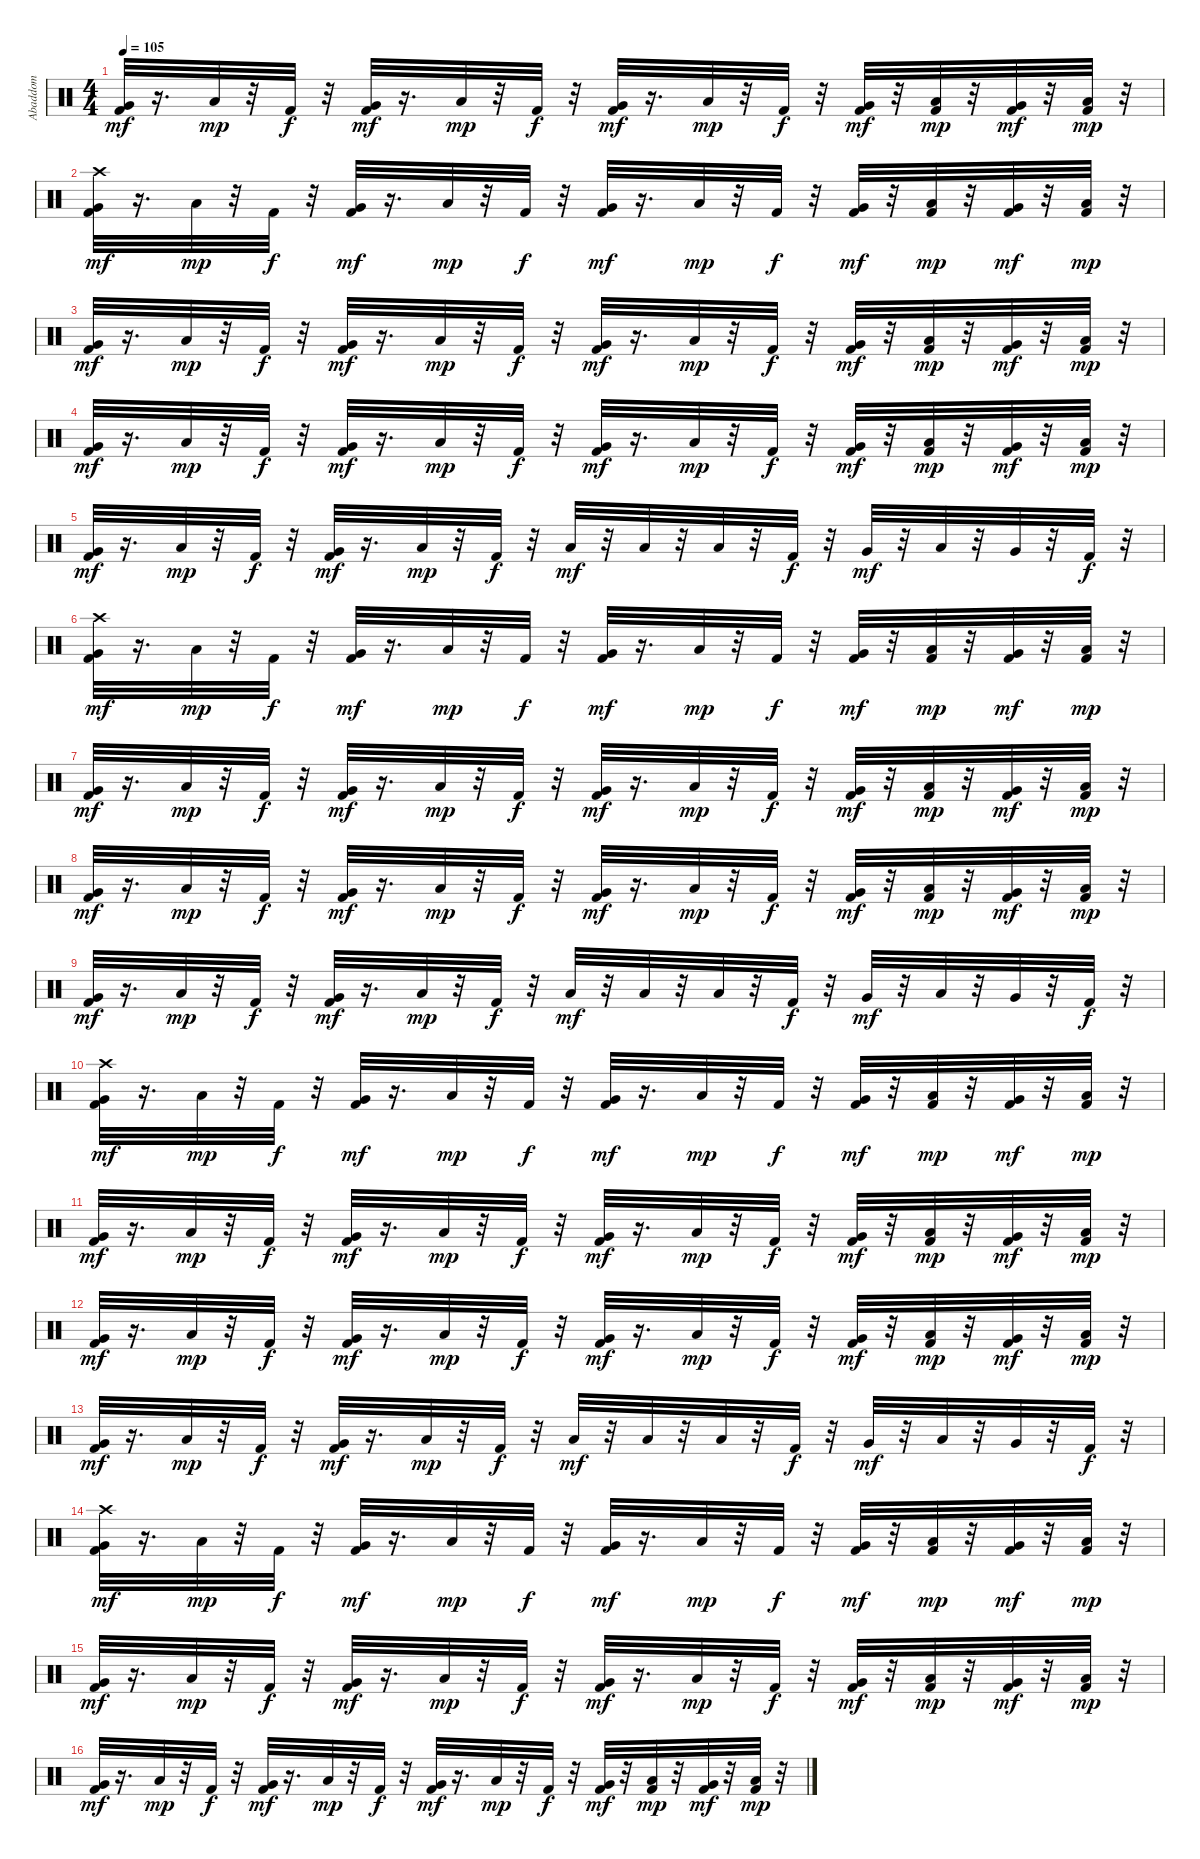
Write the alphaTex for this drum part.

\track ("Abaddom" "Abaddom") {instrument percussion}
\staff {score}
\articulation defaults
\ts (4 4)
\tempo 105
\clef neutral
\ks c
("Very Low Tom (hit)" "Kick (hit) 2").32{dy mf} r.16{d} "Low Floor Tom (hit)".32{dy mp} r.32 "Kick (hit) 2".32{dy f} r.32 ("Kick (hit) 2" "Very Low Tom (hit)").32{dy mf} r.16{d} "Low Floor Tom (hit)".32{dy mp} r.32 "Kick (hit) 2".32{dy f} r.32 ("Kick (hit) 2" "Very Low Tom (hit)").32{dy mf} r.16{d} "Low Floor Tom (hit)".32{dy mp} r.32 "Kick (hit) 2".32{dy f} r.32 ("Kick (hit) 2" "Very Low Tom (hit)").32{dy mf} r.32 ("Low Floor Tom (hit)" "Kick (hit) 2").32{dy mp} r.32 ("Kick (hit) 2" "Very Low Tom (hit)").32{dy mf} r.32 ("Kick (hit) 2" "Low Floor Tom (hit)").32{dy mp} r.32 |
("Crash high (hit)" "Very Low Tom (hit)" "Kick (hit) 2").32{dy mf} r.16{d} "Low Floor Tom (hit)".32{dy mp} r.32 "Kick (hit) 2".32{dy f} r.32 ("Kick (hit) 2" "Very Low Tom (hit)").32{dy mf} r.16{d} "Low Floor Tom (hit)".32{dy mp} r.32 "Kick (hit) 2".32{dy f} r.32 ("Kick (hit) 2" "Very Low Tom (hit)").32{dy mf} r.16{d} "Low Floor Tom (hit)".32{dy mp} r.32 "Kick (hit) 2".32{dy f} r.32 ("Kick (hit) 2" "Very Low Tom (hit)").32{dy mf} r.32 ("Low Floor Tom (hit)" "Kick (hit) 2").32{dy mp} r.32 ("Kick (hit) 2" "Very Low Tom (hit)").32{dy mf} r.32 ("Kick (hit) 2" "Low Floor Tom (hit)").32{dy mp} r.32 |
("Very Low Tom (hit)" "Kick (hit) 2").32{dy mf} r.16{d} "Low Floor Tom (hit)".32{dy mp} r.32 "Kick (hit) 2".32{dy f} r.32 ("Kick (hit) 2" "Very Low Tom (hit)").32{dy mf} r.16{d} "Low Floor Tom (hit)".32{dy mp} r.32 "Kick (hit) 2".32{dy f} r.32 ("Kick (hit) 2" "Very Low Tom (hit)").32{dy mf} r.16{d} "Low Floor Tom (hit)".32{dy mp} r.32 "Kick (hit) 2".32{dy f} r.32 ("Kick (hit) 2" "Very Low Tom (hit)").32{dy mf} r.32 ("Low Floor Tom (hit)" "Kick (hit) 2").32{dy mp} r.32 ("Kick (hit) 2" "Very Low Tom (hit)").32{dy mf} r.32 ("Kick (hit) 2" "Low Floor Tom (hit)").32{dy mp} r.32 |
("Very Low Tom (hit)" "Kick (hit) 2").32{dy mf} r.16{d} "Low Floor Tom (hit)".32{dy mp} r.32 "Kick (hit) 2".32{dy f} r.32 ("Kick (hit) 2" "Very Low Tom (hit)").32{dy mf} r.16{d} "Low Floor Tom (hit)".32{dy mp} r.32 "Kick (hit) 2".32{dy f} r.32 ("Kick (hit) 2" "Very Low Tom (hit)").32{dy mf} r.16{d} "Low Floor Tom (hit)".32{dy mp} r.32 "Kick (hit) 2".32{dy f} r.32 ("Kick (hit) 2" "Very Low Tom (hit)").32{dy mf} r.32 ("Low Floor Tom (hit)" "Kick (hit) 2").32{dy mp} r.32 ("Kick (hit) 2" "Very Low Tom (hit)").32{dy mf} r.32 ("Kick (hit) 2" "Low Floor Tom (hit)").32{dy mp} r.32 |
("Very Low Tom (hit)" "Kick (hit) 2").32{dy mf} r.16{d} "Low Floor Tom (hit)".32{dy mp} r.32 "Kick (hit) 2".32{dy f} r.32 ("Kick (hit) 2" "Very Low Tom (hit)").32{dy mf} r.16{d} "Low Floor Tom (hit)".32{dy mp} r.32 "Kick (hit) 2".32{dy f} r.32 "Low Tom (hit)".32{dy mf} r.32 "Low Tom (hit)".32 r.32 "Low Tom (hit)".32 r.32 "Kick (hit) 2".32{dy f} r.32 "Very Low Tom (hit)".32{dy mf} r.32 "Low Tom (hit)".32 r.32 "Very Low Tom (hit)".32 r.32 "Kick (hit) 2".32{dy f} r.32 |
("Crash high (hit)" "Very Low Tom (hit)" "Kick (hit) 2").32{dy mf} r.16{d} "Low Floor Tom (hit)".32{dy mp} r.32 "Kick (hit) 2".32{dy f} r.32 ("Kick (hit) 2" "Very Low Tom (hit)").32{dy mf} r.16{d} "Low Floor Tom (hit)".32{dy mp} r.32 "Kick (hit) 2".32{dy f} r.32 ("Kick (hit) 2" "Very Low Tom (hit)").32{dy mf} r.16{d} "Low Floor Tom (hit)".32{dy mp} r.32 "Kick (hit) 2".32{dy f} r.32 ("Kick (hit) 2" "Very Low Tom (hit)").32{dy mf} r.32 ("Low Floor Tom (hit)" "Kick (hit) 2").32{dy mp} r.32 ("Kick (hit) 2" "Very Low Tom (hit)").32{dy mf} r.32 ("Kick (hit) 2" "Low Floor Tom (hit)").32{dy mp} r.32 |
("Very Low Tom (hit)" "Kick (hit) 2").32{dy mf} r.16{d} "Low Floor Tom (hit)".32{dy mp} r.32 "Kick (hit) 2".32{dy f} r.32 ("Kick (hit) 2" "Very Low Tom (hit)").32{dy mf} r.16{d} "Low Floor Tom (hit)".32{dy mp} r.32 "Kick (hit) 2".32{dy f} r.32 ("Kick (hit) 2" "Very Low Tom (hit)").32{dy mf} r.16{d} "Low Floor Tom (hit)".32{dy mp} r.32 "Kick (hit) 2".32{dy f} r.32 ("Kick (hit) 2" "Very Low Tom (hit)").32{dy mf} r.32 ("Low Floor Tom (hit)" "Kick (hit) 2").32{dy mp} r.32 ("Kick (hit) 2" "Very Low Tom (hit)").32{dy mf} r.32 ("Kick (hit) 2" "Low Floor Tom (hit)").32{dy mp} r.32 |
("Very Low Tom (hit)" "Kick (hit) 2").32{dy mf} r.16{d} "Low Floor Tom (hit)".32{dy mp} r.32 "Kick (hit) 2".32{dy f} r.32 ("Kick (hit) 2" "Very Low Tom (hit)").32{dy mf} r.16{d} "Low Floor Tom (hit)".32{dy mp} r.32 "Kick (hit) 2".32{dy f} r.32 ("Kick (hit) 2" "Very Low Tom (hit)").32{dy mf} r.16{d} "Low Floor Tom (hit)".32{dy mp} r.32 "Kick (hit) 2".32{dy f} r.32 ("Kick (hit) 2" "Very Low Tom (hit)").32{dy mf} r.32 ("Low Floor Tom (hit)" "Kick (hit) 2").32{dy mp} r.32 ("Kick (hit) 2" "Very Low Tom (hit)").32{dy mf} r.32 ("Kick (hit) 2" "Low Floor Tom (hit)").32{dy mp} r.32 |
("Very Low Tom (hit)" "Kick (hit) 2").32{dy mf} r.16{d} "Low Floor Tom (hit)".32{dy mp} r.32 "Kick (hit) 2".32{dy f} r.32 ("Kick (hit) 2" "Very Low Tom (hit)").32{dy mf} r.16{d} "Low Floor Tom (hit)".32{dy mp} r.32 "Kick (hit) 2".32{dy f} r.32 "Low Tom (hit)".32{dy mf} r.32 "Low Tom (hit)".32 r.32 "Low Tom (hit)".32 r.32 "Kick (hit) 2".32{dy f} r.32 "Very Low Tom (hit)".32{dy mf} r.32 "Low Tom (hit)".32 r.32 "Very Low Tom (hit)".32 r.32 "Kick (hit) 2".32{dy f} r.32 |
("Crash high (hit)" "Very Low Tom (hit)" "Kick (hit) 2").32{dy mf} r.16{d} "Low Floor Tom (hit)".32{dy mp} r.32 "Kick (hit) 2".32{dy f} r.32 ("Kick (hit) 2" "Very Low Tom (hit)").32{dy mf} r.16{d} "Low Floor Tom (hit)".32{dy mp} r.32 "Kick (hit) 2".32{dy f} r.32 ("Kick (hit) 2" "Very Low Tom (hit)").32{dy mf} r.16{d} "Low Floor Tom (hit)".32{dy mp} r.32 "Kick (hit) 2".32{dy f} r.32 ("Kick (hit) 2" "Very Low Tom (hit)").32{dy mf} r.32 ("Low Floor Tom (hit)" "Kick (hit) 2").32{dy mp} r.32 ("Kick (hit) 2" "Very Low Tom (hit)").32{dy mf} r.32 ("Kick (hit) 2" "Low Floor Tom (hit)").32{dy mp} r.32 |
("Very Low Tom (hit)" "Kick (hit) 2").32{dy mf} r.16{d} "Low Floor Tom (hit)".32{dy mp} r.32 "Kick (hit) 2".32{dy f} r.32 ("Kick (hit) 2" "Very Low Tom (hit)").32{dy mf} r.16{d} "Low Floor Tom (hit)".32{dy mp} r.32 "Kick (hit) 2".32{dy f} r.32 ("Kick (hit) 2" "Very Low Tom (hit)").32{dy mf} r.16{d} "Low Floor Tom (hit)".32{dy mp} r.32 "Kick (hit) 2".32{dy f} r.32 ("Kick (hit) 2" "Very Low Tom (hit)").32{dy mf} r.32 ("Low Floor Tom (hit)" "Kick (hit) 2").32{dy mp} r.32 ("Kick (hit) 2" "Very Low Tom (hit)").32{dy mf} r.32 ("Kick (hit) 2" "Low Floor Tom (hit)").32{dy mp} r.32 |
("Very Low Tom (hit)" "Kick (hit) 2").32{dy mf} r.16{d} "Low Floor Tom (hit)".32{dy mp} r.32 "Kick (hit) 2".32{dy f} r.32 ("Kick (hit) 2" "Very Low Tom (hit)").32{dy mf} r.16{d} "Low Floor Tom (hit)".32{dy mp} r.32 "Kick (hit) 2".32{dy f} r.32 ("Kick (hit) 2" "Very Low Tom (hit)").32{dy mf} r.16{d} "Low Floor Tom (hit)".32{dy mp} r.32 "Kick (hit) 2".32{dy f} r.32 ("Kick (hit) 2" "Very Low Tom (hit)").32{dy mf} r.32 ("Low Floor Tom (hit)" "Kick (hit) 2").32{dy mp} r.32 ("Kick (hit) 2" "Very Low Tom (hit)").32{dy mf} r.32 ("Kick (hit) 2" "Low Floor Tom (hit)").32{dy mp} r.32 |
("Very Low Tom (hit)" "Kick (hit) 2").32{dy mf} r.16{d} "Low Floor Tom (hit)".32{dy mp} r.32 "Kick (hit) 2".32{dy f} r.32 ("Kick (hit) 2" "Very Low Tom (hit)").32{dy mf} r.16{d} "Low Floor Tom (hit)".32{dy mp} r.32 "Kick (hit) 2".32{dy f} r.32 "Low Tom (hit)".32{dy mf} r.32 "Low Tom (hit)".32 r.32 "Low Tom (hit)".32 r.32 "Kick (hit) 2".32{dy f} r.32 "Very Low Tom (hit)".32{dy mf} r.32 "Low Tom (hit)".32 r.32 "Very Low Tom (hit)".32 r.32 "Kick (hit) 2".32{dy f} r.32 |
("Crash high (hit)" "Very Low Tom (hit)" "Kick (hit) 2").32{dy mf} r.16{d} "Low Floor Tom (hit)".32{dy mp} r.32 "Kick (hit) 2".32{dy f} r.32 ("Kick (hit) 2" "Very Low Tom (hit)").32{dy mf} r.16{d} "Low Floor Tom (hit)".32{dy mp} r.32 "Kick (hit) 2".32{dy f} r.32 ("Kick (hit) 2" "Very Low Tom (hit)").32{dy mf} r.16{d} "Low Floor Tom (hit)".32{dy mp} r.32 "Kick (hit) 2".32{dy f} r.32 ("Kick (hit) 2" "Very Low Tom (hit)").32{dy mf} r.32 ("Low Floor Tom (hit)" "Kick (hit) 2").32{dy mp} r.32 ("Kick (hit) 2" "Very Low Tom (hit)").32{dy mf} r.32 ("Kick (hit) 2" "Low Floor Tom (hit)").32{dy mp} r.32 |
("Very Low Tom (hit)" "Kick (hit) 2").32{dy mf} r.16{d} "Low Floor Tom (hit)".32{dy mp} r.32 "Kick (hit) 2".32{dy f} r.32 ("Kick (hit) 2" "Very Low Tom (hit)").32{dy mf} r.16{d} "Low Floor Tom (hit)".32{dy mp} r.32 "Kick (hit) 2".32{dy f} r.32 ("Kick (hit) 2" "Very Low Tom (hit)").32{dy mf} r.16{d} "Low Floor Tom (hit)".32{dy mp} r.32 "Kick (hit) 2".32{dy f} r.32 ("Kick (hit) 2" "Very Low Tom (hit)").32{dy mf} r.32 ("Low Floor Tom (hit)" "Kick (hit) 2").32{dy mp} r.32 ("Kick (hit) 2" "Very Low Tom (hit)").32{dy mf} r.32 ("Kick (hit) 2" "Low Floor Tom (hit)").32{dy mp} r.32 |
("Very Low Tom (hit)" "Kick (hit) 2").32{dy mf} r.16{d} "Low Floor Tom (hit)".32{dy mp} r.32 "Kick (hit) 2".32{dy f} r.32 ("Kick (hit) 2" "Very Low Tom (hit)").32{dy mf} r.16{d} "Low Floor Tom (hit)".32{dy mp} r.32 "Kick (hit) 2".32{dy f} r.32 ("Kick (hit) 2" "Very Low Tom (hit)").32{dy mf} r.16{d} "Low Floor Tom (hit)".32{dy mp} r.32 "Kick (hit) 2".32{dy f} r.32 ("Kick (hit) 2" "Very Low Tom (hit)").32{dy mf} r.32 ("Low Floor Tom (hit)" "Kick (hit) 2").32{dy mp} r.32 ("Kick (hit) 2" "Very Low Tom (hit)").32{dy mf} r.32 ("Kick (hit) 2" "Low Floor Tom (hit)").32{dy mp} r.32
